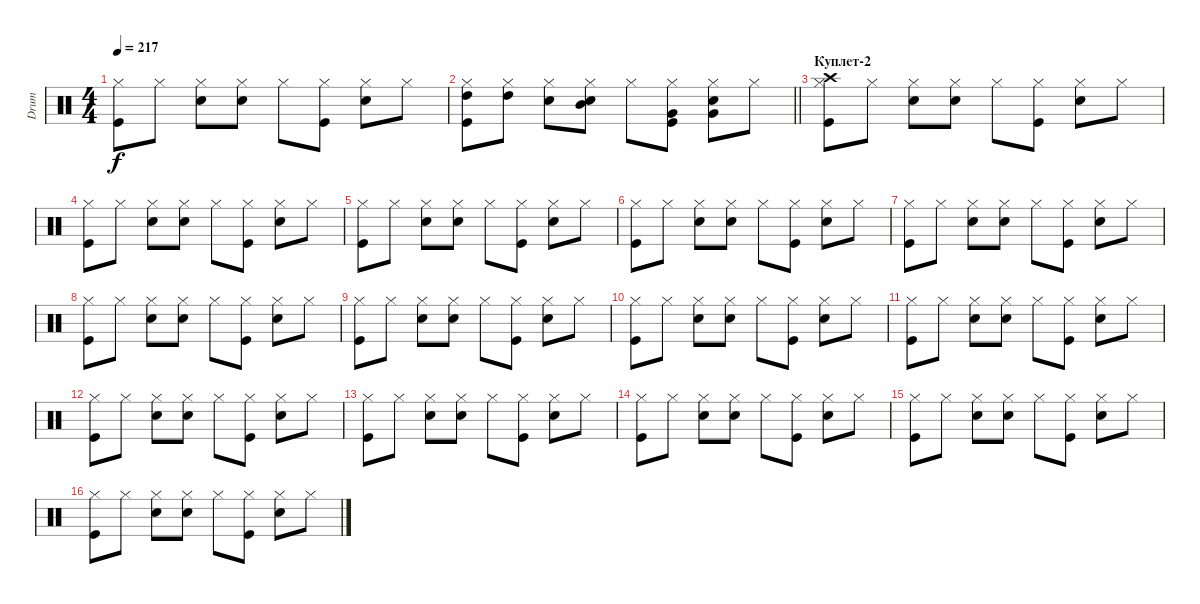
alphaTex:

\track ("Drum" "Drum") {instrument percussion}
\staff {score}
\articulation defaults
\ts (4 4)
\tempo 217
\clef neutral
\ks c
("Kick (hit)" "Hi-Hat (closed)").8{dy f} "Hi-Hat (closed)".8 ("Snare (hit) 2" "Hi-Hat (closed)").8 ("Snare (hit) 2" "Hi-Hat (closed)").8 "Hi-Hat (closed)".8 ("Kick (hit)" "Hi-Hat (closed)").8 ("Snare (hit) 2" "Hi-Hat (closed)").8 "Hi-Hat (closed)".8 |
\barLineRight lightlight
("Kick (hit)" "Hi-Hat (closed)" "High Tom (hit)").8 ("Hi-Hat (closed)" "High Tom (hit)").8 ("Snare (hit) 2" "Hi-Hat (closed)").8 ("Snare (hit) 2" "Hi-Hat (closed)" "Mid Tom (hit)").8 "Hi-Hat (closed)".8 ("Kick (hit)" "Hi-Hat (closed)" "Very Low Tom (hit)").8 ("Snare (hit) 2" "Hi-Hat (closed)" "Very Low Tom (hit)").8 "Hi-Hat (closed)".8 |
\section ("" "Куплет-2")
("Kick (hit)" "Hi-Hat (closed)" "Crash high (hit)").8 "Hi-Hat (closed)".8 ("Snare (hit) 2" "Hi-Hat (closed)").8 ("Snare (hit) 2" "Hi-Hat (closed)").8 "Hi-Hat (closed)".8 ("Kick (hit)" "Hi-Hat (closed)").8 ("Snare (hit) 2" "Hi-Hat (closed)").8 "Hi-Hat (closed)".8 |
("Kick (hit)" "Hi-Hat (closed)").8 "Hi-Hat (closed)".8 ("Snare (hit) 2" "Hi-Hat (closed)").8 ("Snare (hit) 2" "Hi-Hat (closed)").8 "Hi-Hat (closed)".8 ("Kick (hit)" "Hi-Hat (closed)").8 ("Snare (hit) 2" "Hi-Hat (closed)").8 "Hi-Hat (closed)".8 |
("Kick (hit)" "Hi-Hat (closed)").8 "Hi-Hat (closed)".8 ("Snare (hit) 2" "Hi-Hat (closed)").8 ("Snare (hit) 2" "Hi-Hat (closed)").8 "Hi-Hat (closed)".8 ("Kick (hit)" "Hi-Hat (closed)").8 ("Snare (hit) 2" "Hi-Hat (closed)").8 "Hi-Hat (closed)".8 |
("Kick (hit)" "Hi-Hat (closed)").8 "Hi-Hat (closed)".8 ("Snare (hit) 2" "Hi-Hat (closed)").8 ("Snare (hit) 2" "Hi-Hat (closed)").8 "Hi-Hat (closed)".8 ("Kick (hit)" "Hi-Hat (closed)").8 ("Snare (hit) 2" "Hi-Hat (closed)").8 "Hi-Hat (closed)".8 |
("Kick (hit)" "Hi-Hat (closed)").8 "Hi-Hat (closed)".8 ("Snare (hit) 2" "Hi-Hat (closed)").8 ("Snare (hit) 2" "Hi-Hat (closed)").8 "Hi-Hat (closed)".8 ("Kick (hit)" "Hi-Hat (closed)").8 ("Snare (hit) 2" "Hi-Hat (closed)").8 "Hi-Hat (closed)".8 |
("Kick (hit)" "Hi-Hat (closed)").8 "Hi-Hat (closed)".8 ("Snare (hit) 2" "Hi-Hat (closed)").8 ("Snare (hit) 2" "Hi-Hat (closed)").8 "Hi-Hat (closed)".8 ("Kick (hit)" "Hi-Hat (closed)").8 ("Snare (hit) 2" "Hi-Hat (closed)").8 "Hi-Hat (closed)".8 |
("Kick (hit)" "Hi-Hat (closed)").8 "Hi-Hat (closed)".8 ("Snare (hit) 2" "Hi-Hat (closed)").8 ("Snare (hit) 2" "Hi-Hat (closed)").8 "Hi-Hat (closed)".8 ("Kick (hit)" "Hi-Hat (closed)").8 ("Snare (hit) 2" "Hi-Hat (closed)").8 "Hi-Hat (closed)".8 |
("Kick (hit)" "Hi-Hat (closed)").8 "Hi-Hat (closed)".8 ("Snare (hit) 2" "Hi-Hat (closed)").8 ("Snare (hit) 2" "Hi-Hat (closed)").8 "Hi-Hat (closed)".8 ("Kick (hit)" "Hi-Hat (closed)").8 ("Snare (hit) 2" "Hi-Hat (closed)").8 "Hi-Hat (closed)".8 |
("Kick (hit)" "Hi-Hat (closed)").8 "Hi-Hat (closed)".8 ("Snare (hit) 2" "Hi-Hat (closed)").8 ("Snare (hit) 2" "Hi-Hat (closed)").8 "Hi-Hat (closed)".8 ("Kick (hit)" "Hi-Hat (closed)").8 ("Snare (hit) 2" "Hi-Hat (closed)").8 "Hi-Hat (closed)".8 |
("Kick (hit)" "Hi-Hat (closed)").8 "Hi-Hat (closed)".8 ("Snare (hit) 2" "Hi-Hat (closed)").8 ("Snare (hit) 2" "Hi-Hat (closed)").8 "Hi-Hat (closed)".8 ("Kick (hit)" "Hi-Hat (closed)").8 ("Snare (hit) 2" "Hi-Hat (closed)").8 "Hi-Hat (closed)".8 |
("Kick (hit)" "Hi-Hat (closed)").8 "Hi-Hat (closed)".8 ("Snare (hit) 2" "Hi-Hat (closed)").8 ("Snare (hit) 2" "Hi-Hat (closed)").8 "Hi-Hat (closed)".8 ("Kick (hit)" "Hi-Hat (closed)").8 ("Snare (hit) 2" "Hi-Hat (closed)").8 "Hi-Hat (closed)".8 |
("Kick (hit)" "Hi-Hat (closed)").8 "Hi-Hat (closed)".8 ("Snare (hit) 2" "Hi-Hat (closed)").8 ("Snare (hit) 2" "Hi-Hat (closed)").8 "Hi-Hat (closed)".8 ("Kick (hit)" "Hi-Hat (closed)").8 ("Snare (hit) 2" "Hi-Hat (closed)").8 "Hi-Hat (closed)".8 |
("Kick (hit)" "Hi-Hat (closed)").8 "Hi-Hat (closed)".8 ("Snare (hit) 2" "Hi-Hat (closed)").8 ("Snare (hit) 2" "Hi-Hat (closed)").8 "Hi-Hat (closed)".8 ("Kick (hit)" "Hi-Hat (closed)").8 ("Snare (hit) 2" "Hi-Hat (closed)").8 "Hi-Hat (closed)".8 |
("Kick (hit)" "Hi-Hat (closed)").8 "Hi-Hat (closed)".8 ("Snare (hit) 2" "Hi-Hat (closed)").8 ("Snare (hit) 2" "Hi-Hat (closed)").8 "Hi-Hat (closed)".8 ("Kick (hit)" "Hi-Hat (closed)").8 ("Snare (hit) 2" "Hi-Hat (closed)").8 "Hi-Hat (closed)".8
